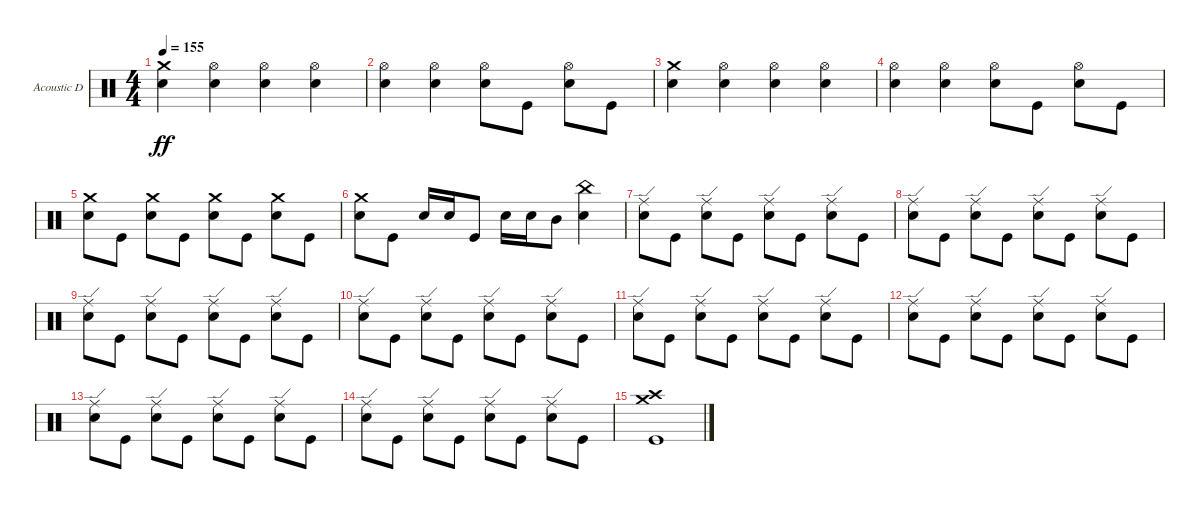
\defaultSystemsLayout 4
\bracketExtendMode groupsimilarinstruments
\firstSystemTrackNameOrientation horizontal
\otherSystemsTrackNameOrientation horizontal
\track ("Acoustic Drums" "Acoustic D") {instrument percussion}
\staff {score}
\articulation defaults
\ts (4 4)
\tempo 155
\clef neutral
\ks c
("Snare (hit) 2" "Crash medium (hit)").4{dy ff} ("Snare (hit) 2" "Hi-Hat (open)").4 ("Snare (hit) 2" "Hi-Hat (open)").4 ("Snare (hit) 2" "Hi-Hat (open)").4 |
("Snare (hit) 2" "Hi-Hat (open)").4 ("Snare (hit) 2" "Hi-Hat (open)").4 ("Snare (hit) 2" "Hi-Hat (open)").8 "Kick (hit)".8 ("Snare (hit) 2" "Hi-Hat (open)").8 "Kick (hit)".8 |
("Snare (hit) 2" "Crash medium (hit)").4 ("Snare (hit) 2" "Hi-Hat (open)").4 ("Snare (hit) 2" "Hi-Hat (open)").4 ("Snare (hit) 2" "Hi-Hat (open)").4 |
("Snare (hit) 2" "Hi-Hat (open)").4 ("Snare (hit) 2" "Hi-Hat (open)").4 ("Snare (hit) 2" "Hi-Hat (open)").8 "Kick (hit)".8 ("Snare (hit) 2" "Hi-Hat (open)").8 "Kick (hit)".8 |
("Snare (hit) 2" "Crash medium (hit)").8 "Kick (hit)".8 ("Snare (hit) 2" "Crash medium (hit)").8 "Kick (hit)".8 ("Snare (hit) 2" "Crash medium (hit)").8 "Kick (hit)".8 ("Snare (hit) 2" "Crash medium (hit)").8 "Kick (hit)".8 |
("Snare (hit) 2" "Crash medium (hit)").8 "Kick (hit)".8 "Snare (hit) 2".16 "Snare (hit) 2".16 "Kick (hit)".8 "Snare (hit) 2".16 "Snare (hit) 2".16 "Mid Tom (hit)".8 ("Snare (hit) 2" "China (hit)").4 |
("Snare (hit) 2" "Ride (edge)").8 "Kick (hit)".8 ("Snare (hit) 2" "Ride (edge)").8 "Kick (hit)".8 ("Snare (hit) 2" "Ride (edge)").8 "Kick (hit)".8 ("Snare (hit) 2" "Ride (edge)").8 "Kick (hit)".8 |
("Snare (hit) 2" "Ride (edge)").8 "Kick (hit)".8 ("Snare (hit) 2" "Ride (edge)").8 "Kick (hit)".8 ("Snare (hit) 2" "Ride (edge)").8 "Kick (hit)".8 ("Snare (hit) 2" "Ride (edge)").8 "Kick (hit)".8 |
("Snare (hit) 2" "Ride (edge)").8 "Kick (hit)".8 ("Snare (hit) 2" "Ride (edge)").8 "Kick (hit)".8 ("Snare (hit) 2" "Ride (edge)").8 "Kick (hit)".8 ("Snare (hit) 2" "Ride (edge)").8 "Kick (hit)".8 |
("Snare (hit) 2" "Ride (edge)").8 "Kick (hit)".8 ("Snare (hit) 2" "Ride (edge)").8 "Kick (hit)".8 ("Snare (hit) 2" "Ride (edge)").8 "Kick (hit)".8 ("Snare (hit) 2" "Ride (edge)").8 "Kick (hit)".8 |
("Snare (hit) 2" "Ride (edge)").8 "Kick (hit)".8 ("Snare (hit) 2" "Ride (edge)").8 "Kick (hit)".8 ("Snare (hit) 2" "Ride (edge)").8 "Kick (hit)".8 ("Snare (hit) 2" "Ride (edge)").8 "Kick (hit)".8 |
("Snare (hit) 2" "Ride (edge)").8 "Kick (hit)".8 ("Snare (hit) 2" "Ride (edge)").8 "Kick (hit)".8 ("Snare (hit) 2" "Ride (edge)").8 "Kick (hit)".8 ("Snare (hit) 2" "Ride (edge)").8 "Kick (hit)".8 |
("Snare (hit) 2" "Ride (edge)").8 "Kick (hit)".8 ("Snare (hit) 2" "Ride (edge)").8 "Kick (hit)".8 ("Snare (hit) 2" "Ride (edge)").8 "Kick (hit)".8 ("Snare (hit) 2" "Ride (edge)").8 "Kick (hit)".8 |
("Snare (hit) 2" "Ride (edge)").8 "Kick (hit)".8 ("Snare (hit) 2" "Ride (edge)").8 "Kick (hit)".8 ("Snare (hit) 2" "Ride (edge)").8 "Kick (hit)".8 ("Snare (hit) 2" "Ride (edge)").8 "Kick (hit)".8 |
("Kick (hit)" "Crash medium (hit)" "Crash high (hit)").1
